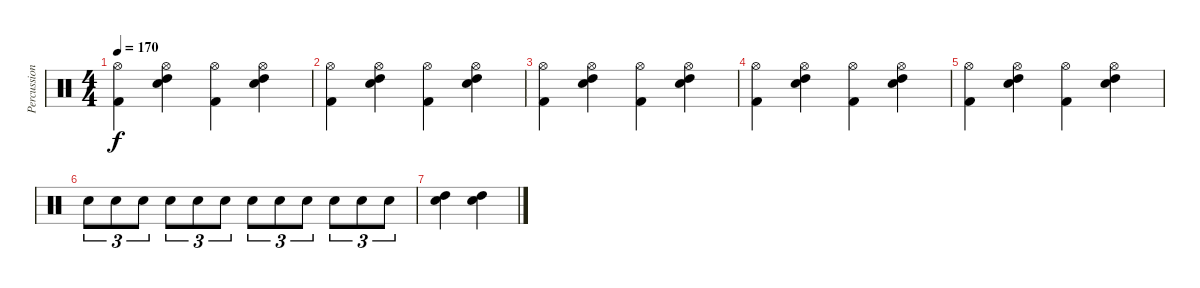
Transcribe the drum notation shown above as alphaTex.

\track ("Percussion" "Percussion") {instrument percussion}
\staff {score}
\articulation defaults
\ts (4 4)
\tempo 170
\clef neutral
\ks c
("Hi-Hat (open)" "Kick (hit) 2").4{dy f} ("Hi-Hat (open)" "High Tom (hit)" "Snare (hit) 2").4 ("Hi-Hat (open)" "Kick (hit) 2").4 ("Hi-Hat (open)" "High Tom (hit)" "Snare (hit) 2").4 |
("Hi-Hat (open)" "Kick (hit) 2").4 ("Hi-Hat (open)" "High Tom (hit)" "Snare (hit) 2").4 ("Hi-Hat (open)" "Kick (hit) 2").4 ("Hi-Hat (open)" "High Tom (hit)" "Snare (hit) 2").4 |
("Hi-Hat (open)" "Kick (hit) 2").4 ("Hi-Hat (open)" "High Tom (hit)" "Snare (hit) 2").4 ("Hi-Hat (open)" "Kick (hit) 2").4 ("Hi-Hat (open)" "High Tom (hit)" "Snare (hit) 2").4 |
("Hi-Hat (open)" "Kick (hit) 2").4 ("Hi-Hat (open)" "High Tom (hit)" "Snare (hit) 2").4 ("Hi-Hat (open)" "Kick (hit) 2").4 ("Hi-Hat (open)" "High Tom (hit)" "Snare (hit) 2").4 |
("Hi-Hat (open)" "Kick (hit) 2").4 ("Hi-Hat (open)" "High Tom (hit)" "Snare (hit) 2").4 ("Hi-Hat (open)" "Kick (hit) 2").4 ("Hi-Hat (open)" "High Tom (hit)" "Snare (hit) 2").4 |
"Snare (hit) 2".8{tu (3 2)} "Snare (hit) 2".8{tu (3 2)} "Snare (hit) 2".8{tu (3 2)} "Snare (hit) 2".8{tu (3 2)} "Snare (hit) 2".8{tu (3 2)} "Snare (hit) 2".8{tu (3 2)} "Snare (hit) 2".8{tu (3 2)} "Snare (hit) 2".8{tu (3 2)} "Snare (hit) 2".8{tu (3 2)} "Snare (hit) 2".8{tu (3 2)} "Snare (hit) 2".8{tu (3 2)} "Snare (hit) 2".8{tu (3 2)} |
("High Tom (hit)" "Snare (hit) 2").4 ("High Tom (hit)" "Snare (hit) 2").4
